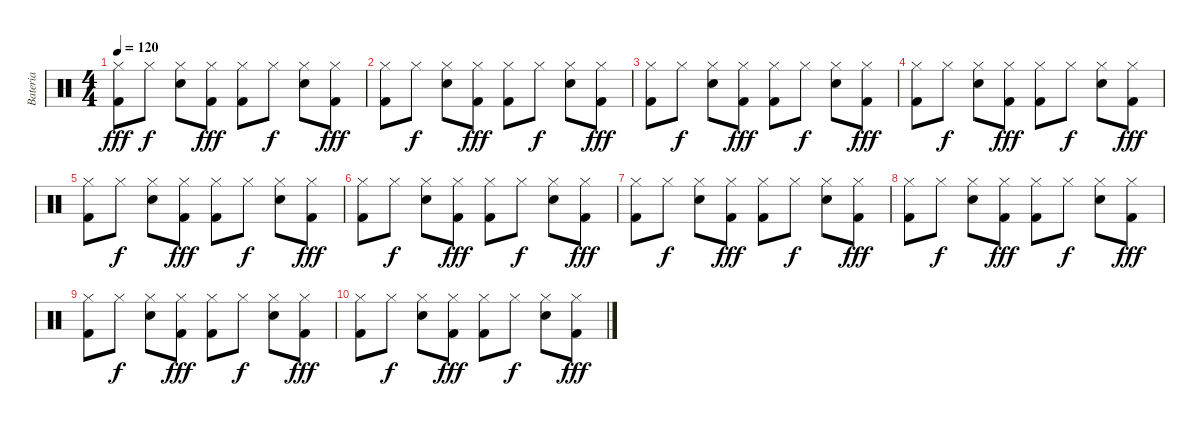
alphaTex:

\track ("Bateria" "Bateria") {instrument percussion}
\staff {score}
\articulation defaults
\ts (4 4)
\tempo 120
\clef neutral
\ks c
("Hi-Hat (closed)" "Kick (hit) 2").8{dy fff} "Hi-Hat (closed)".8{dy f} ("Hi-Hat (closed)" "Snare (hit) 2").8 ("Hi-Hat (closed)" "Kick (hit) 2").8{dy fff} ("Hi-Hat (closed)" "Kick (hit) 2").8 "Hi-Hat (closed)".8{dy f} ("Hi-Hat (closed)" "Snare (hit) 2").8 ("Hi-Hat (closed)" "Kick (hit) 2").8{dy fff} |
("Hi-Hat (closed)" "Kick (hit) 2").8 "Hi-Hat (closed)".8{dy f} ("Hi-Hat (closed)" "Snare (hit) 2").8 ("Hi-Hat (closed)" "Kick (hit) 2").8{dy fff} ("Hi-Hat (closed)" "Kick (hit) 2").8 "Hi-Hat (closed)".8{dy f} ("Hi-Hat (closed)" "Snare (hit) 2").8 ("Hi-Hat (closed)" "Kick (hit) 2").8{dy fff} |
("Hi-Hat (closed)" "Kick (hit) 2").8 "Hi-Hat (closed)".8{dy f} ("Hi-Hat (closed)" "Snare (hit) 2").8 ("Hi-Hat (closed)" "Kick (hit) 2").8{dy fff} ("Hi-Hat (closed)" "Kick (hit) 2").8 "Hi-Hat (closed)".8{dy f} ("Hi-Hat (closed)" "Snare (hit) 2").8 ("Hi-Hat (closed)" "Kick (hit) 2").8{dy fff} |
("Hi-Hat (closed)" "Kick (hit) 2").8 "Hi-Hat (closed)".8{dy f} ("Hi-Hat (closed)" "Snare (hit) 2").8 ("Hi-Hat (closed)" "Kick (hit) 2").8{dy fff} ("Hi-Hat (closed)" "Kick (hit) 2").8 "Hi-Hat (closed)".8{dy f} ("Hi-Hat (closed)" "Snare (hit) 2").8 ("Hi-Hat (closed)" "Kick (hit) 2").8{dy fff} |
("Hi-Hat (closed)" "Kick (hit) 2").8 "Hi-Hat (closed)".8{dy f} ("Hi-Hat (closed)" "Snare (hit) 2").8 ("Hi-Hat (closed)" "Kick (hit) 2").8{dy fff} ("Hi-Hat (closed)" "Kick (hit) 2").8 "Hi-Hat (closed)".8{dy f} ("Hi-Hat (closed)" "Snare (hit) 2").8 ("Hi-Hat (closed)" "Kick (hit) 2").8{dy fff} |
("Hi-Hat (closed)" "Kick (hit) 2").8 "Hi-Hat (closed)".8{dy f} ("Hi-Hat (closed)" "Snare (hit) 2").8 ("Hi-Hat (closed)" "Kick (hit) 2").8{dy fff} ("Hi-Hat (closed)" "Kick (hit) 2").8 "Hi-Hat (closed)".8{dy f} ("Hi-Hat (closed)" "Snare (hit) 2").8 ("Hi-Hat (closed)" "Kick (hit) 2").8{dy fff} |
("Hi-Hat (closed)" "Kick (hit) 2").8 "Hi-Hat (closed)".8{dy f} ("Hi-Hat (closed)" "Snare (hit) 2").8 ("Hi-Hat (closed)" "Kick (hit) 2").8{dy fff} ("Hi-Hat (closed)" "Kick (hit) 2").8 "Hi-Hat (closed)".8{dy f} ("Hi-Hat (closed)" "Snare (hit) 2").8 ("Hi-Hat (closed)" "Kick (hit) 2").8{dy fff} |
("Hi-Hat (closed)" "Kick (hit) 2").8 "Hi-Hat (closed)".8{dy f} ("Hi-Hat (closed)" "Snare (hit) 2").8 ("Hi-Hat (closed)" "Kick (hit) 2").8{dy fff} ("Hi-Hat (closed)" "Kick (hit) 2").8 "Hi-Hat (closed)".8{dy f} ("Hi-Hat (closed)" "Snare (hit) 2").8 ("Hi-Hat (closed)" "Kick (hit) 2").8{dy fff} |
("Hi-Hat (closed)" "Kick (hit) 2").8 "Hi-Hat (closed)".8{dy f} ("Hi-Hat (closed)" "Snare (hit) 2").8 ("Hi-Hat (closed)" "Kick (hit) 2").8{dy fff} ("Hi-Hat (closed)" "Kick (hit) 2").8 "Hi-Hat (closed)".8{dy f} ("Hi-Hat (closed)" "Snare (hit) 2").8 ("Hi-Hat (closed)" "Kick (hit) 2").8{dy fff} |
("Hi-Hat (closed)" "Kick (hit) 2").8 "Hi-Hat (closed)".8{dy f} ("Hi-Hat (closed)" "Snare (hit) 2").8 ("Hi-Hat (closed)" "Kick (hit) 2").8{dy fff} ("Hi-Hat (closed)" "Kick (hit) 2").8 "Hi-Hat (closed)".8{dy f} ("Hi-Hat (closed)" "Snare (hit) 2").8 ("Hi-Hat (closed)" "Kick (hit) 2").8{dy fff}
